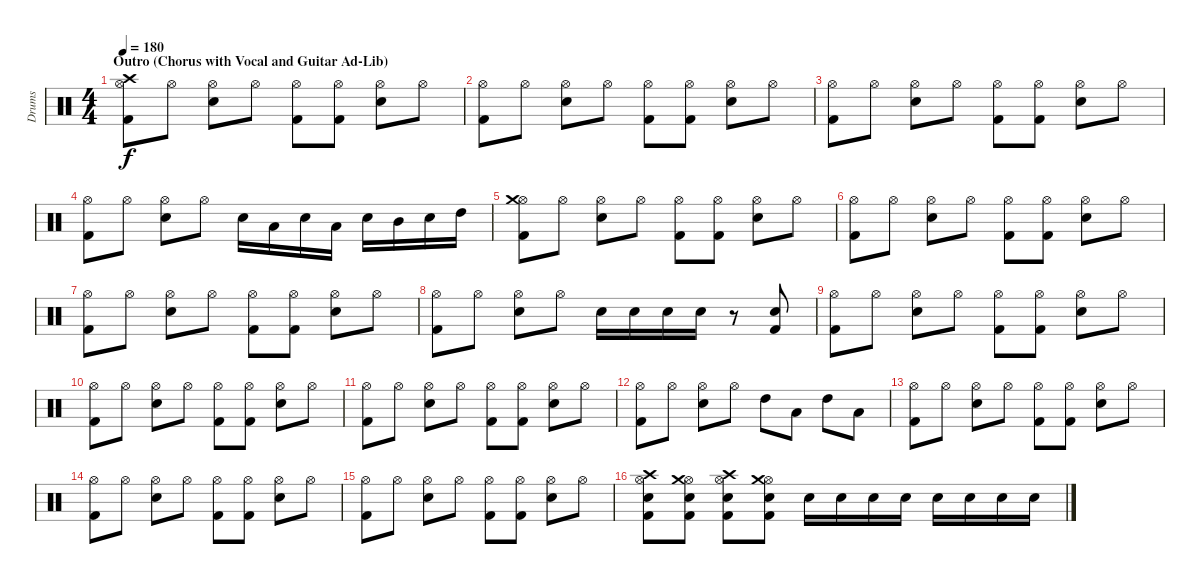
\track ("Drums" "Drums") {instrument percussion}
\staff {score}
\articulation defaults
\ts (4 4)
\section ("" "Outro (Chorus with Vocal and Guitar Ad-Lib)")
\tempo 180
\clef neutral
\ks c
("Hi-Hat (open)" "Crash high (hit)" "Kick (hit) 2").8{dy f} "Hi-Hat (open)".8 ("Hi-Hat (open)" "Snare (hit) 2").8 "Hi-Hat (open)".8 ("Hi-Hat (open)" "Kick (hit) 2").8 ("Hi-Hat (open)" "Kick (hit) 2").8 ("Hi-Hat (open)" "Snare (hit) 2").8 "Hi-Hat (open)".8 |
("Hi-Hat (open)" "Kick (hit) 2").8 "Hi-Hat (open)".8 ("Hi-Hat (open)" "Snare (hit) 2").8 "Hi-Hat (open)".8 ("Hi-Hat (open)" "Kick (hit) 2").8 ("Hi-Hat (open)" "Kick (hit) 2").8 ("Hi-Hat (open)" "Snare (hit) 2").8 "Hi-Hat (open)".8 |
("Hi-Hat (open)" "Kick (hit) 2").8 "Hi-Hat (open)".8 ("Hi-Hat (open)" "Snare (hit) 2").8 "Hi-Hat (open)".8 ("Hi-Hat (open)" "Kick (hit) 2").8 ("Hi-Hat (open)" "Kick (hit) 2").8 ("Hi-Hat (open)" "Snare (hit) 2").8 "Hi-Hat (open)".8 |
("Hi-Hat (open)" "Kick (hit) 2").8 "Hi-Hat (open)".8 ("Hi-Hat (open)" "Snare (hit) 2").8 "Hi-Hat (open)".8 "Snare (hit) 2".16 "Low Floor Tom (hit)".16 "Snare (hit) 2".16 "Low Tom (hit)".16 "Snare (hit) 2".16 "Mid Tom (hit)".16 "Snare (hit) 2".16 "High Tom (hit)".16 |
("Hi-Hat (open)" "Crash medium (hit)" "Kick (hit) 2").8 "Hi-Hat (open)".8 ("Hi-Hat (open)" "Snare (hit) 2").8 "Hi-Hat (open)".8 ("Hi-Hat (open)" "Kick (hit) 2").8 ("Hi-Hat (open)" "Kick (hit) 2").8 ("Hi-Hat (open)" "Snare (hit) 2").8 "Hi-Hat (open)".8 |
("Hi-Hat (open)" "Kick (hit) 2").8 "Hi-Hat (open)".8 ("Hi-Hat (open)" "Snare (hit) 2").8 "Hi-Hat (open)".8 ("Hi-Hat (open)" "Kick (hit) 2").8 ("Hi-Hat (open)" "Kick (hit) 2").8 ("Hi-Hat (open)" "Snare (hit) 2").8 "Hi-Hat (open)".8 |
("Hi-Hat (open)" "Kick (hit) 2").8 "Hi-Hat (open)".8 ("Hi-Hat (open)" "Snare (hit) 2").8 "Hi-Hat (open)".8 ("Hi-Hat (open)" "Kick (hit) 2").8 ("Hi-Hat (open)" "Kick (hit) 2").8 ("Hi-Hat (open)" "Snare (hit) 2").8 "Hi-Hat (open)".8 |
("Hi-Hat (open)" "Kick (hit) 2").8 "Hi-Hat (open)".8 ("Hi-Hat (open)" "Snare (hit) 2").8 "Hi-Hat (open)".8 "Snare (hit) 2".16 "Snare (hit) 2".16 "Snare (hit) 2".16 "Snare (hit) 2".16 r.8 ("Snare (hit) 2" "Kick (hit) 2").8 |
("Hi-Hat (open)" "Kick (hit) 2").8 "Hi-Hat (open)".8 ("Hi-Hat (open)" "Snare (hit) 2").8 "Hi-Hat (open)".8 ("Hi-Hat (open)" "Kick (hit) 2").8 ("Hi-Hat (open)" "Kick (hit) 2").8 ("Hi-Hat (open)" "Snare (hit) 2").8 "Hi-Hat (open)".8 |
("Hi-Hat (open)" "Kick (hit) 2").8 "Hi-Hat (open)".8 ("Hi-Hat (open)" "Snare (hit) 2").8 "Hi-Hat (open)".8 ("Hi-Hat (open)" "Kick (hit) 2").8 ("Hi-Hat (open)" "Kick (hit) 2").8 ("Hi-Hat (open)" "Snare (hit) 2").8 "Hi-Hat (open)".8 |
("Hi-Hat (open)" "Kick (hit) 2").8 "Hi-Hat (open)".8 ("Hi-Hat (open)" "Snare (hit) 2").8 "Hi-Hat (open)".8 ("Hi-Hat (open)" "Kick (hit) 2").8 ("Hi-Hat (open)" "Kick (hit) 2").8 ("Hi-Hat (open)" "Snare (hit) 2").8 "Hi-Hat (open)".8 |
("Hi-Hat (open)" "Kick (hit) 2").8 "Hi-Hat (open)".8 ("Hi-Hat (open)" "Snare (hit) 2").8 "Hi-Hat (open)".8 "High Tom (hit)".8 "Low Tom (hit)".8 "High Tom (hit)".8 "Low Tom (hit)".8 |
("Hi-Hat (open)" "Kick (hit) 2").8 "Hi-Hat (open)".8 ("Hi-Hat (open)" "Snare (hit) 2").8 "Hi-Hat (open)".8 ("Hi-Hat (open)" "Kick (hit) 2").8 ("Hi-Hat (open)" "Kick (hit) 2").8 ("Hi-Hat (open)" "Snare (hit) 2").8 "Hi-Hat (open)".8 |
("Hi-Hat (open)" "Kick (hit) 2").8 "Hi-Hat (open)".8 ("Hi-Hat (open)" "Snare (hit) 2").8 "Hi-Hat (open)".8 ("Hi-Hat (open)" "Kick (hit) 2").8 ("Hi-Hat (open)" "Kick (hit) 2").8 ("Hi-Hat (open)" "Snare (hit) 2").8 "Hi-Hat (open)".8 |
("Hi-Hat (open)" "Kick (hit) 2").8 "Hi-Hat (open)".8 ("Hi-Hat (open)" "Snare (hit) 2").8 "Hi-Hat (open)".8 ("Hi-Hat (open)" "Kick (hit) 2").8 ("Hi-Hat (open)" "Kick (hit) 2").8 ("Hi-Hat (open)" "Snare (hit) 2").8 "Hi-Hat (open)".8 |
("Hi-Hat (open)" "Crash high (hit)" "Snare (hit) 2" "Kick (hit) 2").8 ("Hi-Hat (open)" "Crash medium (hit)" "Snare (hit) 2" "Kick (hit) 2").8 ("Hi-Hat (open)" "Crash high (hit)" "Snare (hit) 2" "Kick (hit) 2").8 ("Hi-Hat (open)" "Crash medium (hit)" "Snare (hit) 2" "Kick (hit) 2").8 "Snare (hit) 2".16 "Snare (hit) 2".16 "Snare (hit) 2".16 "Snare (hit) 2".16 "Snare (hit) 2".16 "Snare (hit) 2".16 "Snare (hit) 2".16 "Snare (hit) 2".16
